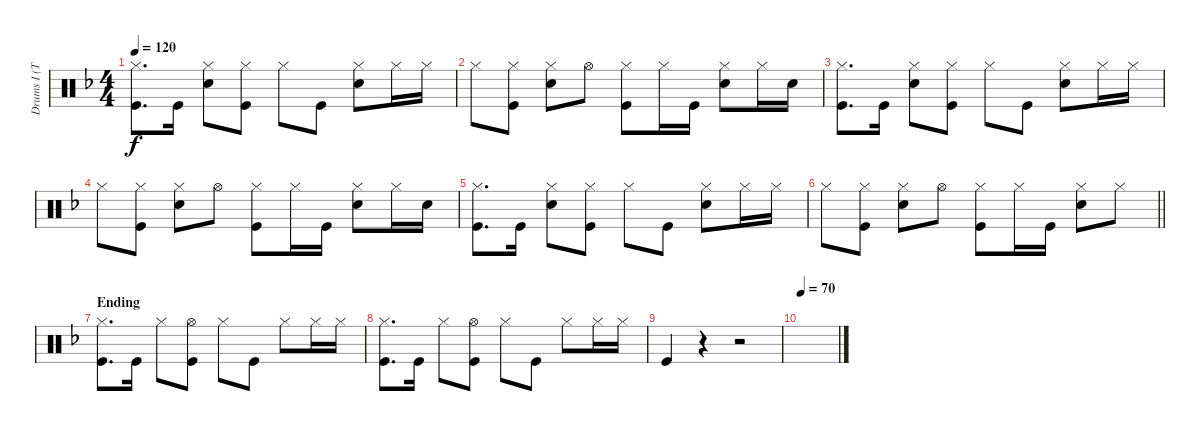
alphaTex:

\track ("Drums I (Tainaka Ritsu)" "Drums I (T") {instrument percussion}
\staff {score}
\articulation defaults
\ts (4 4)
\tempo 120
\clef neutral
\ks f
("Hi-Hat (closed)" "Kick (hit)").8{d dy f} "Kick (hit)".16 ("Hi-Hat (closed)" "Snare (hit) 2").8 ("Hi-Hat (closed)" "Kick (hit)").8 "Hi-Hat (closed)".8 "Kick (hit)".8 ("Hi-Hat (closed)" "Snare (hit) 2").8 "Hi-Hat (closed)".16 "Hi-Hat (closed)".16 |
"Hi-Hat (closed)".8 ("Hi-Hat (closed)" "Kick (hit)").8 ("Hi-Hat (closed)" "Snare (hit) 2").8 "Hi-Hat (open)".8 ("Hi-Hat (closed)" "Kick (hit)").8 "Hi-Hat (closed)".16 "Kick (hit)".16 ("Hi-Hat (closed)" "Snare (hit) 2").8 "Hi-Hat (closed)".16 "Snare (hit) 2".16 |
("Hi-Hat (closed)" "Kick (hit)").8{d} "Kick (hit)".16 ("Hi-Hat (closed)" "Snare (hit) 2").8 ("Hi-Hat (closed)" "Kick (hit)").8 "Hi-Hat (closed)".8 "Kick (hit)".8 ("Hi-Hat (closed)" "Snare (hit) 2").8 "Hi-Hat (closed)".16 "Hi-Hat (closed)".16 |
"Hi-Hat (closed)".8 ("Hi-Hat (closed)" "Kick (hit)").8 ("Hi-Hat (closed)" "Snare (hit) 2").8 "Hi-Hat (open)".8 ("Hi-Hat (closed)" "Kick (hit)").8 "Hi-Hat (closed)".16 "Kick (hit)".16 ("Hi-Hat (closed)" "Snare (hit) 2").8 "Hi-Hat (closed)".16 "Snare (hit) 2".16 |
("Hi-Hat (closed)" "Kick (hit)").8{d} "Kick (hit)".16 ("Hi-Hat (closed)" "Snare (hit) 2").8 ("Hi-Hat (closed)" "Kick (hit)").8 "Hi-Hat (closed)".8 "Kick (hit)".8 ("Hi-Hat (closed)" "Snare (hit) 2").8 "Hi-Hat (closed)".16 "Hi-Hat (closed)".16 |
\barLineRight lightlight "Hi-Hat (closed)".8
("Hi-Hat (closed)" "Kick (hit)").8 ("Hi-Hat (closed)" "Snare (hit) 2").8 "Hi-Hat (open)".8 ("Hi-Hat (closed)" "Kick (hit)").8 "Hi-Hat (closed)".16 "Kick (hit)".16 ("Hi-Hat (closed)" "Snare (hit) 2").8 "Hi-Hat (closed)".8 |
\section ("" "Ending")
("Hi-Hat (closed)" "Kick (hit)").8{d} "Kick (hit)".16 "Hi-Hat (closed)".8 ("Hi-Hat (open)" "Kick (hit)").8 "Hi-Hat (closed)".8 "Kick (hit)".8 "Hi-Hat (closed)".8 "Hi-Hat (closed)".16 "Hi-Hat (closed)".16 |
("Hi-Hat (closed)" "Kick (hit)").8{d} "Kick (hit)".16 "Hi-Hat (closed)".8 ("Hi-Hat (open)" "Kick (hit)").8 "Hi-Hat (closed)".8 "Kick (hit)".8 "Hi-Hat (closed)".8 "Hi-Hat (closed)".16 "Hi-Hat (closed)".16 |
"Kick (hit)".4 r.4 r.2 |
\tempo 70
